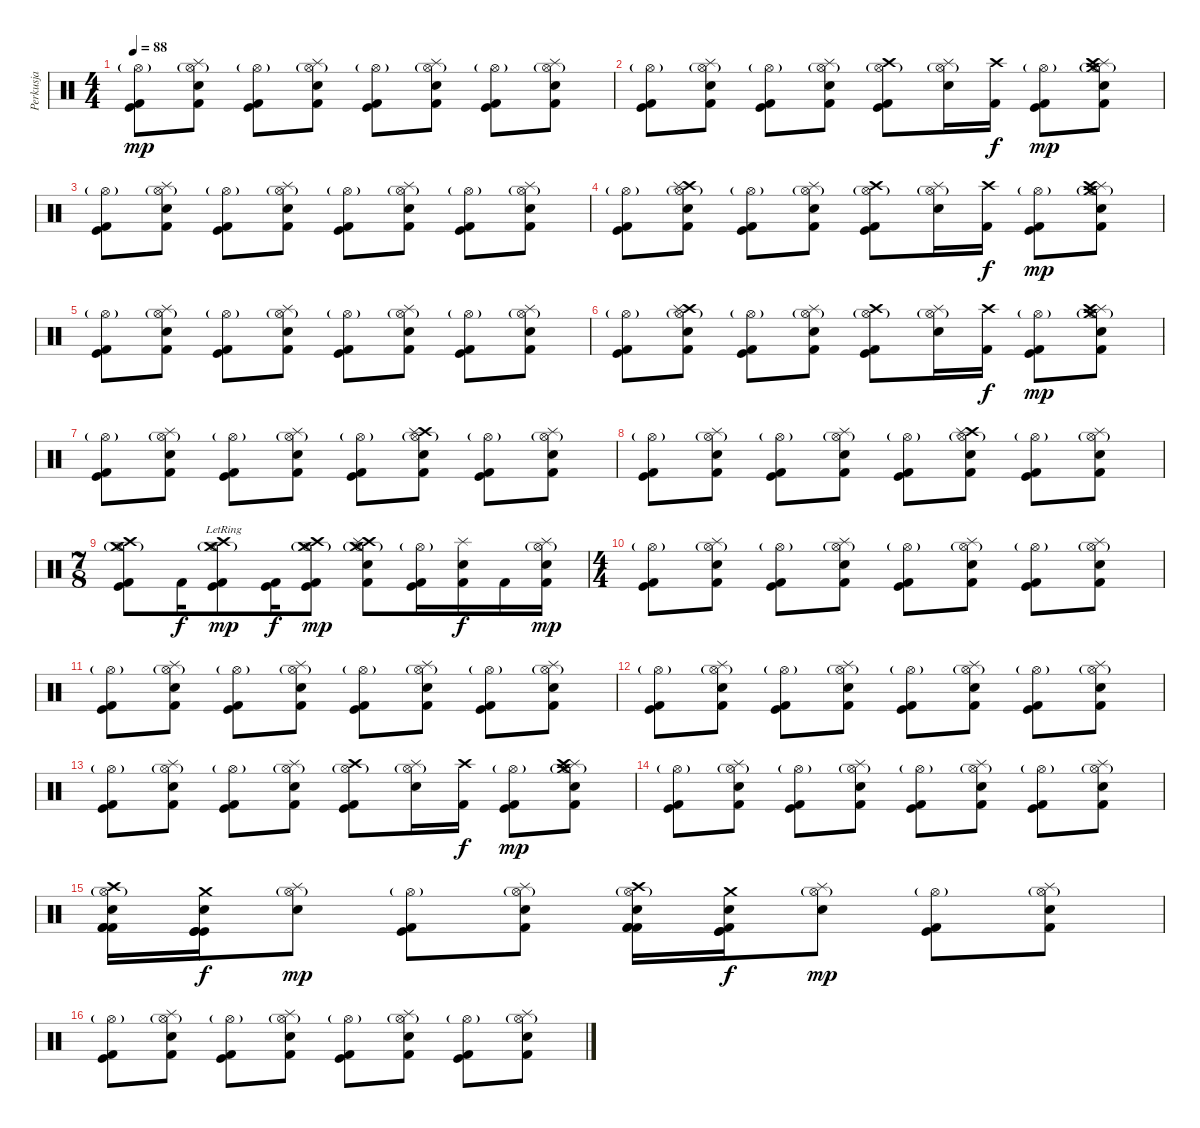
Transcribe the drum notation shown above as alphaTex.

\track ("Perkusja" "Perkusja") {instrument percussion}
\staff {score}
\articulation defaults
\ts (4 4)
\tempo 88
\clef neutral
\ks c
("Hi-Hat (open)"{g} "Kick (hit)" "Kick (hit) 2").8{dy mp} ("Hi-Hat (open)"{g} "Splash (hit)" "Electric Snare (hit)" "Kick (hit) 2").8 ("Hi-Hat (open)"{g} "Kick (hit)" "Kick (hit) 2").8 ("Hi-Hat (open)"{g} "Splash (hit)" "Electric Snare (hit)" "Kick (hit) 2").8 ("Hi-Hat (open)"{g} "Kick (hit)" "Kick (hit) 2").8 ("Hi-Hat (open)"{g} "Splash (hit)" "Electric Snare (hit)" "Kick (hit) 2").8 ("Hi-Hat (open)"{g} "Kick (hit)" "Kick (hit) 2").8 ("Hi-Hat (open)"{g} "Splash (hit)" "Electric Snare (hit)" "Kick (hit) 2").8 |
("Hi-Hat (open)"{g} "Kick (hit)" "Kick (hit) 2").8 ("Hi-Hat (open)"{g} "Splash (hit)" "Electric Snare (hit)" "Kick (hit) 2").8 ("Hi-Hat (open)"{g} "Kick (hit)" "Kick (hit) 2").8 ("Hi-Hat (open)"{g} "Splash (hit)" "Electric Snare (hit)" "Kick (hit) 2").8 ("Hi-Hat (open)"{g} "Crash high (hit)" "Kick (hit)" "Kick (hit) 2").8 ("Hi-Hat (open)"{g} "Splash (hit)" "Electric Snare (hit)").16 ("Crash high (hit)" "Kick (hit) 2").16{dy f} ("Hi-Hat (open)"{g} "Kick (hit)" "Kick (hit) 2").8{dy mp} ("Hi-Hat (open)"{g} "Crash medium (hit)" "Splash (hit)" "Crash high (hit)" "Electric Snare (hit)" "Kick (hit) 2").8 |
("Hi-Hat (open)"{g} "Kick (hit)" "Kick (hit) 2").8 ("Hi-Hat (open)"{g} "Splash (hit)" "Electric Snare (hit)" "Kick (hit) 2").8 ("Hi-Hat (open)"{g} "Kick (hit)" "Kick (hit) 2").8 ("Hi-Hat (open)"{g} "Splash (hit)" "Electric Snare (hit)" "Kick (hit) 2").8 ("Hi-Hat (open)"{g} "Kick (hit)" "Kick (hit) 2").8 ("Hi-Hat (open)"{g} "Splash (hit)" "Electric Snare (hit)" "Kick (hit) 2").8 ("Hi-Hat (open)"{g} "Kick (hit)" "Kick (hit) 2").8 ("Hi-Hat (open)"{g} "Splash (hit)" "Electric Snare (hit)" "Kick (hit) 2").8 |
("Hi-Hat (open)"{g} "Kick (hit)" "Kick (hit) 2").8 ("Hi-Hat (open)"{g} "Crash high (hit)" "Splash (hit)" "Electric Snare (hit)" "Kick (hit) 2").8 ("Hi-Hat (open)"{g} "Kick (hit)" "Kick (hit) 2").8 ("Hi-Hat (open)"{g} "Splash (hit)" "Electric Snare (hit)" "Kick (hit) 2").8 ("Hi-Hat (open)"{g} "Crash high (hit)" "Kick (hit)" "Kick (hit) 2").8 ("Hi-Hat (open)"{g} "Splash (hit)" "Electric Snare (hit)").16 ("Crash high (hit)" "Kick (hit) 2").16{dy f} ("Hi-Hat (open)"{g} "Kick (hit)" "Kick (hit) 2").8{dy mp} ("Hi-Hat (open)"{g} "Crash medium (hit)" "Splash (hit)" "Crash high (hit)" "Electric Snare (hit)" "Kick (hit) 2").8 |
("Hi-Hat (open)"{g} "Kick (hit)" "Kick (hit) 2").8 ("Hi-Hat (open)"{g} "Splash (hit)" "Electric Snare (hit)" "Kick (hit) 2").8 ("Hi-Hat (open)"{g} "Kick (hit)" "Kick (hit) 2").8 ("Hi-Hat (open)"{g} "Splash (hit)" "Electric Snare (hit)" "Kick (hit) 2").8 ("Hi-Hat (open)"{g} "Kick (hit)" "Kick (hit) 2").8 ("Hi-Hat (open)"{g} "Splash (hit)" "Electric Snare (hit)" "Kick (hit) 2").8 ("Hi-Hat (open)"{g} "Kick (hit)" "Kick (hit) 2").8 ("Hi-Hat (open)"{g} "Splash (hit)" "Electric Snare (hit)" "Kick (hit) 2").8 |
("Hi-Hat (open)"{g} "Kick (hit)" "Kick (hit) 2").8 ("Hi-Hat (open)"{g} "Crash high (hit)" "Splash (hit)" "Electric Snare (hit)" "Kick (hit) 2").8 ("Hi-Hat (open)"{g} "Kick (hit)" "Kick (hit) 2").8 ("Hi-Hat (open)"{g} "Splash (hit)" "Electric Snare (hit)" "Kick (hit) 2").8 ("Hi-Hat (open)"{g} "Crash high (hit)" "Kick (hit)" "Kick (hit) 2").8 ("Hi-Hat (open)"{g} "Splash (hit)" "Electric Snare (hit)").16 ("Crash high (hit)" "Kick (hit) 2").16{dy f} ("Hi-Hat (open)"{g} "Kick (hit)" "Kick (hit) 2").8{dy mp} ("Hi-Hat (open)"{g} "Crash medium (hit)" "Splash (hit)" "Crash high (hit)" "Electric Snare (hit)" "Kick (hit) 2").8 |
("Hi-Hat (open)"{g} "Kick (hit)" "Kick (hit) 2").8 ("Hi-Hat (open)"{g} "Splash (hit)" "Electric Snare (hit)" "Kick (hit) 2").8 ("Hi-Hat (open)"{g} "Kick (hit)" "Kick (hit) 2").8 ("Hi-Hat (open)"{g} "Splash (hit)" "Electric Snare (hit)" "Kick (hit) 2").8 ("Hi-Hat (open)"{g} "Kick (hit)" "Kick (hit) 2").8 ("Hi-Hat (open)"{g} "Crash high (hit)" "Splash (hit)" "Electric Snare (hit)" "Kick (hit) 2").8 ("Hi-Hat (open)"{g} "Kick (hit)" "Kick (hit) 2").8 ("Hi-Hat (open)"{g} "Splash (hit)" "Electric Snare (hit)" "Kick (hit) 2").8 |
("Hi-Hat (open)"{g} "Kick (hit)" "Kick (hit) 2").8 ("Hi-Hat (open)"{g} "Splash (hit)" "Electric Snare (hit)" "Kick (hit) 2").8 ("Hi-Hat (open)"{g} "Kick (hit)" "Kick (hit) 2").8 ("Hi-Hat (open)"{g} "Splash (hit)" "Electric Snare (hit)" "Kick (hit) 2").8 ("Hi-Hat (open)"{g} "Kick (hit)" "Kick (hit) 2").8 ("Hi-Hat (open)"{g} "Crash high (hit)" "Splash (hit)" "Electric Snare (hit)" "Kick (hit) 2").8 ("Hi-Hat (open)"{g} "Kick (hit)" "Kick (hit) 2").8 ("Hi-Hat (open)"{g} "Splash (hit)" "Electric Snare (hit)" "Kick (hit) 2").8 |
\ts (7 8)
("Hi-Hat (open)"{g} "Crash high (hit)" "Crash medium (hit)" "Kick (hit)" "Kick (hit) 2").8 "Kick (hit) 2".16{dy f} ("Hi-Hat (open)"{g lr} "Crash high (hit)" "Crash medium (hit)" "Kick (hit)" "Kick (hit) 2").8{dy mp} ("Kick (hit) 2" "Kick (hit)").16{dy f} ("Hi-Hat (open)"{g} "Crash high (hit)" "Crash medium (hit)" "Kick (hit)" "Kick (hit) 2").8{dy mp} ("Hi-Hat (open)"{g} "Crash high (hit)" "Splash (hit)" "Crash medium (hit)" "Electric Snare (hit)" "Kick (hit) 2").8 ("Hi-Hat (open)"{g} "Kick (hit)" "Kick (hit) 2").16 ("Splash (hit)" "Electric Snare (hit)" "Kick (hit) 2").16{dy f} "Kick (hit) 2".16 ("Hi-Hat (open)"{g} "Splash (hit)" "Electric Snare (hit)" "Kick (hit) 2").16{dy mp} |
\ts (4 4)
("Hi-Hat (open)"{g} "Kick (hit)" "Kick (hit) 2").8 ("Hi-Hat (open)"{g} "Splash (hit)" "Electric Snare (hit)" "Kick (hit) 2").8 ("Hi-Hat (open)"{g} "Kick (hit)" "Kick (hit) 2").8 ("Hi-Hat (open)"{g} "Splash (hit)" "Electric Snare (hit)" "Kick (hit) 2").8 ("Hi-Hat (open)"{g} "Kick (hit)" "Kick (hit) 2").8 ("Hi-Hat (open)"{g} "Splash (hit)" "Electric Snare (hit)" "Kick (hit) 2").8 ("Hi-Hat (open)"{g} "Kick (hit)" "Kick (hit) 2").8 ("Hi-Hat (open)"{g} "Splash (hit)" "Electric Snare (hit)" "Kick (hit) 2").8 |
("Hi-Hat (open)"{g} "Kick (hit)" "Kick (hit) 2").8 ("Hi-Hat (open)"{g} "Splash (hit)" "Electric Snare (hit)" "Kick (hit) 2").8 ("Hi-Hat (open)"{g} "Kick (hit)" "Kick (hit) 2").8 ("Hi-Hat (open)"{g} "Splash (hit)" "Electric Snare (hit)" "Kick (hit) 2").8 ("Hi-Hat (open)"{g} "Kick (hit)" "Kick (hit) 2").8 ("Hi-Hat (open)"{g} "Splash (hit)" "Electric Snare (hit)" "Kick (hit) 2").8 ("Hi-Hat (open)"{g} "Kick (hit)" "Kick (hit) 2").8 ("Hi-Hat (open)"{g} "Splash (hit)" "Electric Snare (hit)" "Kick (hit) 2").8 |
("Hi-Hat (open)"{g} "Kick (hit)" "Kick (hit) 2").8 ("Hi-Hat (open)"{g} "Splash (hit)" "Electric Snare (hit)" "Kick (hit) 2").8 ("Hi-Hat (open)"{g} "Kick (hit)" "Kick (hit) 2").8 ("Hi-Hat (open)"{g} "Splash (hit)" "Electric Snare (hit)" "Kick (hit) 2").8 ("Hi-Hat (open)"{g} "Kick (hit)" "Kick (hit) 2").8 ("Hi-Hat (open)"{g} "Splash (hit)" "Electric Snare (hit)" "Kick (hit) 2").8 ("Hi-Hat (open)"{g} "Kick (hit)" "Kick (hit) 2").8 ("Hi-Hat (open)"{g} "Splash (hit)" "Electric Snare (hit)" "Kick (hit) 2").8 |
("Hi-Hat (open)"{g} "Kick (hit)" "Kick (hit) 2").8 ("Hi-Hat (open)"{g} "Splash (hit)" "Electric Snare (hit)" "Kick (hit) 2").8 ("Hi-Hat (open)"{g} "Kick (hit)" "Kick (hit) 2").8 ("Hi-Hat (open)"{g} "Splash (hit)" "Electric Snare (hit)" "Kick (hit) 2").8 ("Hi-Hat (open)"{g} "Crash high (hit)" "Kick (hit)" "Kick (hit) 2").8 ("Hi-Hat (open)"{g} "Splash (hit)" "Electric Snare (hit)").16 ("Crash high (hit)" "Kick (hit) 2").16{dy f} ("Hi-Hat (open)"{g} "Kick (hit)" "Kick (hit) 2").8{dy mp} ("Hi-Hat (open)"{g} "Crash medium (hit)" "Splash (hit)" "Crash high (hit)" "Electric Snare (hit)" "Kick (hit) 2").8 |
("Hi-Hat (open)"{g} "Kick (hit)" "Kick (hit) 2").8 ("Hi-Hat (open)"{g} "Splash (hit)" "Electric Snare (hit)" "Kick (hit) 2").8 ("Hi-Hat (open)"{g} "Kick (hit)" "Kick (hit) 2").8 ("Hi-Hat (open)"{g} "Splash (hit)" "Electric Snare (hit)" "Kick (hit) 2").8 ("Hi-Hat (open)"{g} "Kick (hit)" "Kick (hit) 2").8 ("Hi-Hat (open)"{g} "Splash (hit)" "Electric Snare (hit)" "Kick (hit) 2").8 ("Hi-Hat (open)"{g} "Kick (hit)" "Kick (hit) 2").8 ("Hi-Hat (open)"{g} "Splash (hit)" "Electric Snare (hit)" "Kick (hit) 2").8 |
("Hi-Hat (open)"{g} "Crash high (hit)" "Snare (hit) 2" "Kick (hit) 2" "Kick (hit) 2" "Kick (hit) 2").16 ("Crash medium (hit)" "Snare (hit) 2" "Kick (hit)" "Kick (hit)" "Kick (hit)").16{dy f} ("Hi-Hat (open)"{g} "Splash (hit)" "Electric Snare (hit)").8{dy mp} ("Hi-Hat (open)"{g} "Kick (hit)" "Kick (hit) 2").8 ("Hi-Hat (open)"{g} "Splash (hit)" "Electric Snare (hit)" "Kick (hit) 2").8 ("Hi-Hat (open)"{g} "Crash high (hit)" "Snare (hit) 2" "Kick (hit) 2" "Kick (hit) 2" "Kick (hit) 2").16 ("Crash medium (hit)" "Snare (hit) 2" "Kick (hit)" "Kick (hit)" "Kick (hit) 2").16{dy f} ("Hi-Hat (open)"{g} "Splash (hit)" "Electric Snare (hit)").8{dy mp} ("Hi-Hat (open)"{g} "Kick (hit)" "Kick (hit) 2").8 ("Hi-Hat (open)"{g} "Splash (hit)" "Electric Snare (hit)" "Kick (hit) 2").8 |
("Hi-Hat (open)"{g} "Kick (hit)" "Kick (hit) 2").8 ("Hi-Hat (open)"{g} "Splash (hit)" "Electric Snare (hit)" "Kick (hit) 2").8 ("Hi-Hat (open)"{g} "Kick (hit)" "Kick (hit) 2").8 ("Hi-Hat (open)"{g} "Splash (hit)" "Electric Snare (hit)" "Kick (hit) 2").8 ("Hi-Hat (open)"{g} "Kick (hit)" "Kick (hit) 2").8 ("Hi-Hat (open)"{g} "Splash (hit)" "Electric Snare (hit)" "Kick (hit) 2").8 ("Hi-Hat (open)"{g} "Kick (hit)" "Kick (hit) 2").8 ("Hi-Hat (open)"{g} "Splash (hit)" "Electric Snare (hit)" "Kick (hit) 2").8
